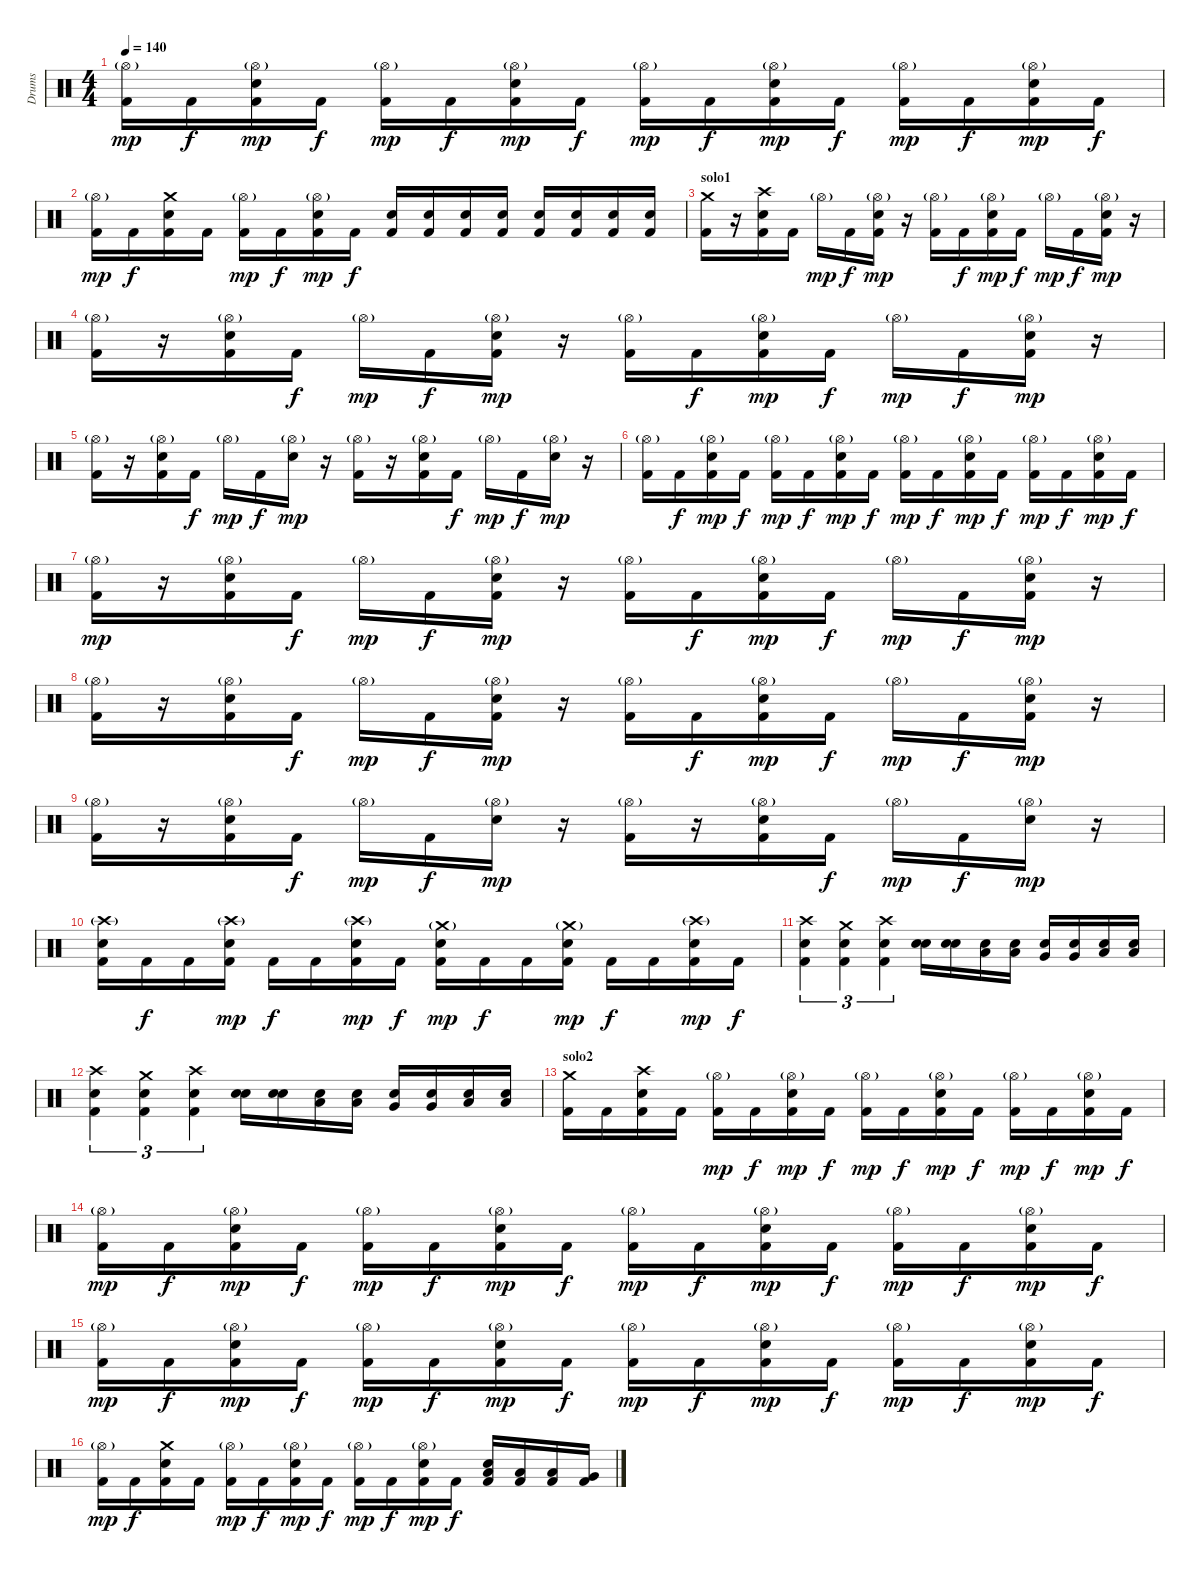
\track ("Drums" "Drums") {instrument percussion}
\staff {score}
\articulation defaults
\ts (4 4)
\tempo 140
\clef neutral
\ks c
("Hi-Hat (open)"{g} "Kick (hit) 2").16{dy mp} "Kick (hit) 2".16{dy f} ("Hi-Hat (open)"{g} "Electric Snare (hit)" "Kick (hit) 2").16{dy mp} "Kick (hit) 2".16{dy f} ("Hi-Hat (open)"{g} "Kick (hit) 2").16{dy mp} "Kick (hit) 2".16{dy f} ("Hi-Hat (open)"{g} "Electric Snare (hit)" "Kick (hit) 2").16{dy mp} "Kick (hit) 2".16{dy f} ("Hi-Hat (open)"{g} "Kick (hit) 2").16{dy mp} "Kick (hit) 2".16{dy f} ("Hi-Hat (open)"{g} "Electric Snare (hit)" "Kick (hit) 2").16{dy mp} "Kick (hit) 2".16{dy f} ("Hi-Hat (open)"{g} "Kick (hit) 2").16{dy mp} "Kick (hit) 2".16{dy f} ("Hi-Hat (open)"{g} "Electric Snare (hit)" "Kick (hit) 2").16{dy mp} "Kick (hit) 2".16{dy f} |
("Hi-Hat (open)"{g} "Kick (hit) 2").16{dy mp} "Kick (hit) 2".16{dy f} ("Crash medium (hit)" "Electric Snare (hit)" "Kick (hit) 2").16 "Kick (hit) 2".16 ("Hi-Hat (open)"{g} "Kick (hit) 2").16{dy mp} "Kick (hit) 2".16{dy f} ("Hi-Hat (open)"{g} "Electric Snare (hit)" "Kick (hit) 2").16{dy mp} "Kick (hit) 2".16{dy f} ("Electric Snare (hit)" "Kick (hit) 2").16 ("Electric Snare (hit)" "Kick (hit) 2").16 ("Electric Snare (hit)" "Kick (hit) 2").16 ("Electric Snare (hit)" "Kick (hit) 2").16 ("Electric Snare (hit)" "Kick (hit) 2").16 ("Electric Snare (hit)" "Kick (hit) 2").16 ("Electric Snare (hit)" "Kick (hit) 2").16 ("Electric Snare (hit)" "Kick (hit) 2").16 |
\section ("" "solo1")
("Crash medium (hit)" "Kick (hit) 2").16 r.16 ("Crash high (hit)" "Electric Snare (hit)" "Kick (hit) 2").16 "Kick (hit) 2".16 "Hi-Hat (open)"{g}.16{dy mp} "Kick (hit) 2".16{dy f} ("Hi-Hat (open)"{g} "Electric Snare (hit)" "Kick (hit) 2").16{dy mp} r.16 ("Hi-Hat (open)"{g} "Kick (hit) 2").16 "Kick (hit) 2".16{dy f} ("Hi-Hat (open)"{g} "Electric Snare (hit)" "Kick (hit) 2").16{dy mp} "Kick (hit) 2".16{dy f} "Hi-Hat (open)"{g}.16{dy mp} "Kick (hit) 2".16{dy f} ("Hi-Hat (open)"{g} "Electric Snare (hit)" "Kick (hit) 2").16{dy mp} r.16 |
("Hi-Hat (open)"{g} "Kick (hit) 2").16 r.16 ("Hi-Hat (open)"{g} "Electric Snare (hit)" "Kick (hit) 2").16 "Kick (hit) 2".16{dy f} "Hi-Hat (open)"{g}.16{dy mp} "Kick (hit) 2".16{dy f} ("Hi-Hat (open)"{g} "Electric Snare (hit)" "Kick (hit) 2").16{dy mp} r.16 ("Hi-Hat (open)"{g} "Kick (hit) 2").16 "Kick (hit) 2".16{dy f} ("Hi-Hat (open)"{g} "Electric Snare (hit)" "Kick (hit) 2").16{dy mp} "Kick (hit) 2".16{dy f} "Hi-Hat (open)"{g}.16{dy mp} "Kick (hit) 2".16{dy f} ("Hi-Hat (open)"{g} "Electric Snare (hit)" "Kick (hit) 2").16{dy mp} r.16 |
("Hi-Hat (open)"{g} "Kick (hit) 2").16 r.16 ("Hi-Hat (open)"{g} "Electric Snare (hit)" "Kick (hit) 2").16 "Kick (hit) 2".16{dy f} "Hi-Hat (open)"{g}.16{dy mp} "Kick (hit) 2".16{dy f} ("Hi-Hat (open)"{g} "Electric Snare (hit)").16{dy mp} r.16 ("Hi-Hat (open)"{g} "Kick (hit) 2").16 r.16 ("Hi-Hat (open)"{g} "Electric Snare (hit)" "Kick (hit) 2").16 "Kick (hit) 2".16{dy f} "Hi-Hat (open)"{g}.16{dy mp} "Kick (hit) 2".16{dy f} ("Hi-Hat (open)"{g} "Electric Snare (hit)").16{dy mp} r.16 |
("Hi-Hat (open)"{g} "Kick (hit) 2").16 "Kick (hit) 2".16{dy f} ("Hi-Hat (open)"{g} "Electric Snare (hit)" "Kick (hit) 2").16{dy mp} "Kick (hit) 2".16{dy f} ("Hi-Hat (open)"{g} "Kick (hit) 2").16{dy mp} "Kick (hit) 2".16{dy f} ("Hi-Hat (open)"{g} "Electric Snare (hit)" "Kick (hit) 2").16{dy mp} "Kick (hit) 2".16{dy f} ("Hi-Hat (open)"{g} "Kick (hit) 2").16{dy mp} "Kick (hit) 2".16{dy f} ("Hi-Hat (open)"{g} "Electric Snare (hit)" "Kick (hit) 2").16{dy mp} "Kick (hit) 2".16{dy f} ("Hi-Hat (open)"{g} "Kick (hit) 2").16{dy mp} "Kick (hit) 2".16{dy f} ("Hi-Hat (open)"{g} "Electric Snare (hit)" "Kick (hit) 2").16{dy mp} "Kick (hit) 2".16{dy f} |
("Hi-Hat (open)"{g} "Kick (hit) 2").16{dy mp} r.16 ("Hi-Hat (open)"{g} "Electric Snare (hit)" "Kick (hit) 2").16 "Kick (hit) 2".16{dy f} "Hi-Hat (open)"{g}.16{dy mp} "Kick (hit) 2".16{dy f} ("Hi-Hat (open)"{g} "Electric Snare (hit)" "Kick (hit) 2").16{dy mp} r.16 ("Hi-Hat (open)"{g} "Kick (hit) 2").16 "Kick (hit) 2".16{dy f} ("Hi-Hat (open)"{g} "Electric Snare (hit)" "Kick (hit) 2").16{dy mp} "Kick (hit) 2".16{dy f} "Hi-Hat (open)"{g}.16{dy mp} "Kick (hit) 2".16{dy f} ("Hi-Hat (open)"{g} "Electric Snare (hit)" "Kick (hit) 2").16{dy mp} r.16 |
("Hi-Hat (open)"{g} "Kick (hit) 2").16 r.16 ("Hi-Hat (open)"{g} "Electric Snare (hit)" "Kick (hit) 2").16 "Kick (hit) 2".16{dy f} "Hi-Hat (open)"{g}.16{dy mp} "Kick (hit) 2".16{dy f} ("Hi-Hat (open)"{g} "Electric Snare (hit)" "Kick (hit) 2").16{dy mp} r.16 ("Hi-Hat (open)"{g} "Kick (hit) 2").16 "Kick (hit) 2".16{dy f} ("Hi-Hat (open)"{g} "Electric Snare (hit)" "Kick (hit) 2").16{dy mp} "Kick (hit) 2".16{dy f} "Hi-Hat (open)"{g}.16{dy mp} "Kick (hit) 2".16{dy f} ("Hi-Hat (open)"{g} "Electric Snare (hit)" "Kick (hit) 2").16{dy mp} r.16 |
("Hi-Hat (open)"{g} "Kick (hit) 2").16 r.16 ("Hi-Hat (open)"{g} "Electric Snare (hit)" "Kick (hit) 2").16 "Kick (hit) 2".16{dy f} "Hi-Hat (open)"{g}.16{dy mp} "Kick (hit) 2".16{dy f} ("Hi-Hat (open)"{g} "Electric Snare (hit)").16{dy mp} r.16 ("Hi-Hat (open)"{g} "Kick (hit) 2").16 r.16 ("Hi-Hat (open)"{g} "Electric Snare (hit)" "Kick (hit) 2").16 "Kick (hit) 2".16{dy f} "Hi-Hat (open)"{g}.16{dy mp} "Kick (hit) 2".16{dy f} ("Hi-Hat (open)"{g} "Electric Snare (hit)").16{dy mp} r.16 |
("Crash high (hit)"{g} "Electric Snare (hit)" "Kick (hit) 2").16 "Kick (hit) 2".16{dy f} "Kick (hit) 2".16 ("Crash high (hit)"{g} "Electric Snare (hit)" "Kick (hit) 2").16{dy mp} "Kick (hit) 2".16{dy f} "Kick (hit) 2".16 ("Crash high (hit)"{g} "Electric Snare (hit)" "Kick (hit) 2").16{dy mp} "Kick (hit) 2".16{dy f} ("Crash medium (hit)"{g} "Electric Snare (hit)" "Kick (hit) 2").16{dy mp} "Kick (hit) 2".16{dy f} "Kick (hit) 2".16 ("Crash medium (hit)"{g} "Electric Snare (hit)" "Kick (hit) 2").16{dy mp} "Kick (hit) 2".16{dy f} "Kick (hit) 2".16 ("Crash high (hit)"{g} "Electric Snare (hit)" "Kick (hit) 2").16{dy mp} "Kick (hit) 2".16{dy f} |
("Crash high (hit)" "Electric Snare (hit)" "Kick (hit) 2").4{tu (3 2)} ("Crash medium (hit)" "Electric Snare (hit)" "Kick (hit) 2").4{tu (3 2)} ("Crash high (hit)" "Electric Snare (hit)" "Kick (hit) 2").4{tu (3 2)} ("Electric Snare (hit)" "Snare (hit) 2").16 ("Electric Snare (hit)" "Snare (hit) 2").16 ("Electric Snare (hit)" "Low Floor Tom (hit)").16 ("Electric Snare (hit)" "Low Floor Tom (hit)").16 ("Electric Snare (hit)" "Very Low Tom (hit)").16 ("Electric Snare (hit)" "Very Low Tom (hit)").16 ("Electric Snare (hit)" "Low Tom (hit)").16 ("Electric Snare (hit)" "Low Tom (hit)").16 |
("Crash high (hit)" "Electric Snare (hit)" "Kick (hit) 2").4{tu (3 2)} ("Crash medium (hit)" "Electric Snare (hit)" "Kick (hit) 2").4{tu (3 2)} ("Crash high (hit)" "Electric Snare (hit)" "Kick (hit) 2").4{tu (3 2)} ("Electric Snare (hit)" "Snare (hit) 2").16 ("Electric Snare (hit)" "Snare (hit) 2").16 ("Electric Snare (hit)" "Low Floor Tom (hit)").16 ("Electric Snare (hit)" "Low Floor Tom (hit)").16 ("Electric Snare (hit)" "Very Low Tom (hit)").16 ("Electric Snare (hit)" "Very Low Tom (hit)").16 ("Electric Snare (hit)" "Low Tom (hit)").16 ("Electric Snare (hit)" "Low Tom (hit)").16 |
\section ("" "solo2")
("Crash medium (hit)" "Kick (hit) 2").16 "Kick (hit) 2".16 ("Crash high (hit)" "Electric Snare (hit)" "Kick (hit) 2").16 "Kick (hit) 2".16 ("Hi-Hat (open)"{g} "Kick (hit) 2").16{dy mp} "Kick (hit) 2".16{dy f} ("Hi-Hat (open)"{g} "Electric Snare (hit)" "Kick (hit) 2").16{dy mp} "Kick (hit) 2".16{dy f} ("Hi-Hat (open)"{g} "Kick (hit) 2").16{dy mp} "Kick (hit) 2".16{dy f} ("Hi-Hat (open)"{g} "Electric Snare (hit)" "Kick (hit) 2").16{dy mp} "Kick (hit) 2".16{dy f} ("Hi-Hat (open)"{g} "Kick (hit) 2").16{dy mp} "Kick (hit) 2".16{dy f} ("Hi-Hat (open)"{g} "Electric Snare (hit)" "Kick (hit) 2").16{dy mp} "Kick (hit) 2".16{dy f} |
("Hi-Hat (open)"{g} "Kick (hit) 2").16{dy mp} "Kick (hit) 2".16{dy f} ("Hi-Hat (open)"{g} "Electric Snare (hit)" "Kick (hit) 2").16{dy mp} "Kick (hit) 2".16{dy f} ("Hi-Hat (open)"{g} "Kick (hit) 2").16{dy mp} "Kick (hit) 2".16{dy f} ("Hi-Hat (open)"{g} "Electric Snare (hit)" "Kick (hit) 2").16{dy mp} "Kick (hit) 2".16{dy f} ("Hi-Hat (open)"{g} "Kick (hit) 2").16{dy mp} "Kick (hit) 2".16{dy f} ("Hi-Hat (open)"{g} "Electric Snare (hit)" "Kick (hit) 2").16{dy mp} "Kick (hit) 2".16{dy f} ("Hi-Hat (open)"{g} "Kick (hit) 2").16{dy mp} "Kick (hit) 2".16{dy f} ("Hi-Hat (open)"{g} "Electric Snare (hit)" "Kick (hit) 2").16{dy mp} "Kick (hit) 2".16{dy f} |
("Hi-Hat (open)"{g} "Kick (hit) 2").16{dy mp} "Kick (hit) 2".16{dy f} ("Hi-Hat (open)"{g} "Electric Snare (hit)" "Kick (hit) 2").16{dy mp} "Kick (hit) 2".16{dy f} ("Hi-Hat (open)"{g} "Kick (hit) 2").16{dy mp} "Kick (hit) 2".16{dy f} ("Hi-Hat (open)"{g} "Electric Snare (hit)" "Kick (hit) 2").16{dy mp} "Kick (hit) 2".16{dy f} ("Hi-Hat (open)"{g} "Kick (hit) 2").16{dy mp} "Kick (hit) 2".16{dy f} ("Hi-Hat (open)"{g} "Electric Snare (hit)" "Kick (hit) 2").16{dy mp} "Kick (hit) 2".16{dy f} ("Hi-Hat (open)"{g} "Kick (hit) 2").16{dy mp} "Kick (hit) 2".16{dy f} ("Hi-Hat (open)"{g} "Electric Snare (hit)" "Kick (hit) 2").16{dy mp} "Kick (hit) 2".16{dy f} |
("Hi-Hat (open)"{g} "Kick (hit) 2").16{dy mp} "Kick (hit) 2".16{dy f} ("Crash medium (hit)" "Electric Snare (hit)" "Kick (hit) 2").16 "Kick (hit) 2".16 ("Hi-Hat (open)"{g} "Kick (hit) 2").16{dy mp} "Kick (hit) 2".16{dy f} ("Hi-Hat (open)"{g} "Electric Snare (hit)" "Kick (hit) 2").16{dy mp} "Kick (hit) 2".16{dy f} ("Hi-Hat (open)"{g} "Kick (hit) 2").16{dy mp} "Kick (hit) 2".16{dy f} ("Hi-Hat (open)"{g} "Electric Snare (hit)" "Kick (hit) 2").16{dy mp} "Kick (hit) 2".16{dy f} ("Electric Snare (hit)" "Kick (hit) 2" "Low Tom (hit)").16 ("Kick (hit) 2" "Low Tom (hit)").16 ("Kick (hit) 2" "Low Tom (hit)").16 ("Kick (hit) 2" "Very Low Tom (hit)").16
